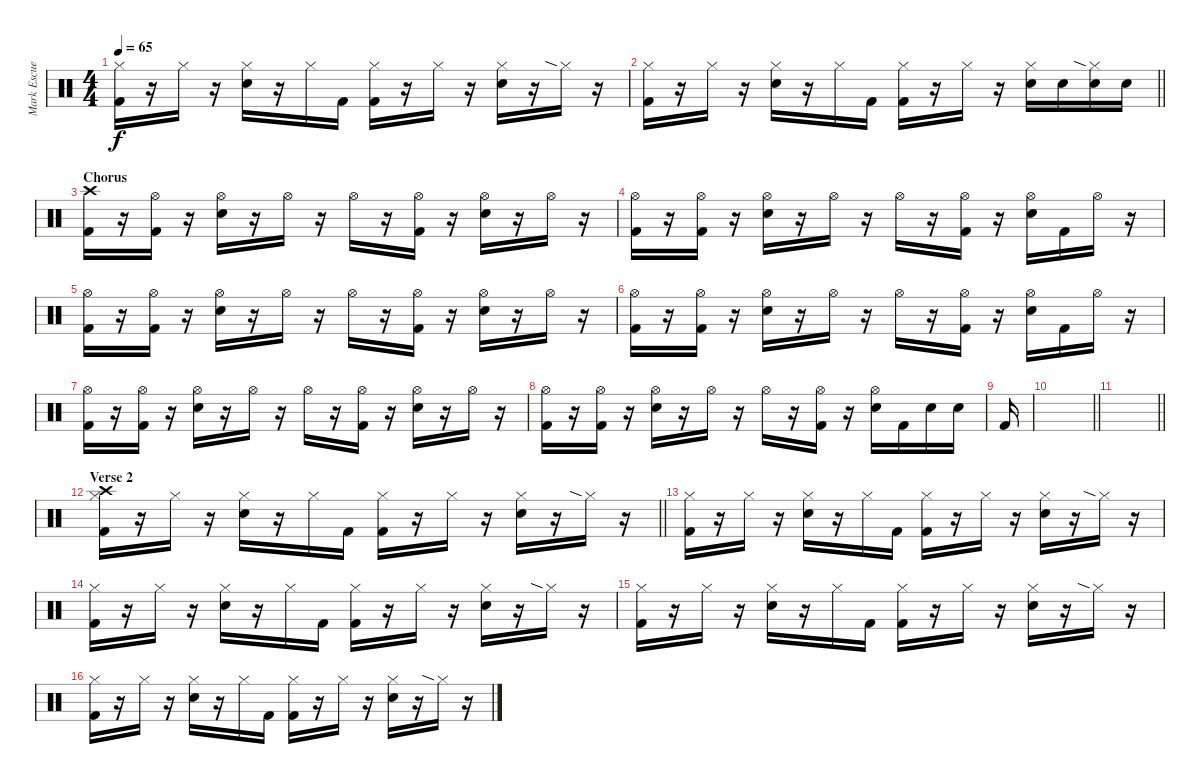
\track ("Mark Escueta" "Mark Escue") {instrument percussion}
\staff {score}
\articulation defaults
\ts (4 4)
\tempo 65
\clef neutral
\ks c
("Hi-Hat (closed)" "Kick (hit) 2").16{dy f} r.16 "Hi-Hat (closed)".16 r.16 ("Hi-Hat (closed)" "Electric Snare (hit)").16 r.16 "Hi-Hat (closed)".16 "Kick (hit) 2".16 ("Hi-Hat (closed)" "Kick (hit) 2").16 r.16 "Hi-Hat (closed)".16 r.16 ("Hi-Hat (closed)" "Electric Snare (hit)").16 r.16 "Hi-Hat (closed)"{sia}.16 r.16 |
\barLineRight lightlight
("Hi-Hat (closed)" "Kick (hit) 2").16 r.16 "Hi-Hat (closed)".16 r.16 ("Hi-Hat (closed)" "Electric Snare (hit)").16 r.16 "Hi-Hat (closed)".16 "Kick (hit) 2".16 ("Hi-Hat (closed)" "Kick (hit) 2").16 r.16 "Hi-Hat (closed)".16 r.16 ("Hi-Hat (closed)" "Electric Snare (hit)").16 "Electric Snare (hit)".16 ("Hi-Hat (closed)"{sia} "Electric Snare (hit)").16 "Electric Snare (hit)".16 |
\section ("" "Chorus")
("Crash high (hit)" "Kick (hit) 2").16 r.16 ("Hi-Hat (open)" "Kick (hit) 2").16 r.16 ("Hi-Hat (open)" "Electric Snare (hit)").16 r.16 "Hi-Hat (open)".16 r.16 "Hi-Hat (open)".16 r.16 ("Hi-Hat (open)" "Kick (hit) 2").16 r.16 ("Hi-Hat (open)" "Electric Snare (hit)").16 r.16 "Hi-Hat (open)".16 r.16 |
("Hi-Hat (open)" "Kick (hit) 2").16 r.16 ("Hi-Hat (open)" "Kick (hit) 2").16 r.16 ("Hi-Hat (open)" "Electric Snare (hit)").16 r.16 "Hi-Hat (open)".16 r.16 "Hi-Hat (open)".16 r.16 ("Hi-Hat (open)" "Kick (hit) 2").16 r.16 ("Hi-Hat (open)" "Electric Snare (hit)").16 "Kick (hit) 2".16 "Hi-Hat (open)".16 r.16 |
("Hi-Hat (open)" "Kick (hit) 2").16 r.16 ("Hi-Hat (open)" "Kick (hit) 2").16 r.16 ("Hi-Hat (open)" "Electric Snare (hit)").16 r.16 "Hi-Hat (open)".16 r.16 "Hi-Hat (open)".16 r.16 ("Hi-Hat (open)" "Kick (hit) 2").16 r.16 ("Hi-Hat (open)" "Electric Snare (hit)").16 r.16 "Hi-Hat (open)".16 r.16 |
("Hi-Hat (open)" "Kick (hit) 2").16 r.16 ("Hi-Hat (open)" "Kick (hit) 2").16 r.16 ("Hi-Hat (open)" "Electric Snare (hit)").16 r.16 "Hi-Hat (open)".16 r.16 "Hi-Hat (open)".16 r.16 ("Hi-Hat (open)" "Kick (hit) 2").16 r.16 ("Hi-Hat (open)" "Electric Snare (hit)").16 "Kick (hit) 2".16 "Hi-Hat (open)".16 r.16 |
("Hi-Hat (open)" "Kick (hit) 2").16 r.16 ("Hi-Hat (open)" "Kick (hit) 2").16 r.16 ("Hi-Hat (open)" "Electric Snare (hit)").16 r.16 "Hi-Hat (open)".16 r.16 "Hi-Hat (open)".16 r.16 ("Hi-Hat (open)" "Kick (hit) 2").16 r.16 ("Hi-Hat (open)" "Electric Snare (hit)").16 r.16 "Hi-Hat (open)".16 r.16 |
("Hi-Hat (open)" "Kick (hit) 2").16 r.16 ("Hi-Hat (open)" "Kick (hit) 2").16 r.16 ("Hi-Hat (open)" "Electric Snare (hit)").16 r.16 "Hi-Hat (open)".16 r.16 "Hi-Hat (open)".16 r.16 ("Hi-Hat (open)" "Kick (hit) 2").16 r.16 ("Hi-Hat (open)" "Electric Snare (hit)").16 "Kick (hit) 2".16 "Electric Snare (hit)".16 "Electric Snare (hit)".16 |
"Kick (hit) 2".16 |
\barLineRight lightlight
|
\barLineRight lightlight
|
\section ("" "Verse 2")
\barLineRight lightlight
("Crash high (hit)" "Hi-Hat (closed)" "Kick (hit) 2").16 r.16 "Hi-Hat (closed)".16 r.16 ("Hi-Hat (closed)" "Electric Snare (hit)").16 r.16 "Hi-Hat (closed)".16 "Kick (hit) 2".16 ("Hi-Hat (closed)" "Kick (hit) 2").16 r.16 "Hi-Hat (closed)".16 r.16 ("Hi-Hat (closed)" "Electric Snare (hit)").16 r.16 "Hi-Hat (closed)"{sia}.16 r.16 |
("Hi-Hat (closed)" "Kick (hit) 2").16 r.16 "Hi-Hat (closed)".16 r.16 ("Hi-Hat (closed)" "Electric Snare (hit)").16 r.16 "Hi-Hat (closed)".16 "Kick (hit) 2".16 ("Hi-Hat (closed)" "Kick (hit) 2").16 r.16 "Hi-Hat (closed)".16 r.16 ("Hi-Hat (closed)" "Electric Snare (hit)").16 r.16 "Hi-Hat (closed)"{sia}.16 r.16 |
("Hi-Hat (closed)" "Kick (hit) 2").16 r.16 "Hi-Hat (closed)".16 r.16 ("Hi-Hat (closed)" "Electric Snare (hit)").16 r.16 "Hi-Hat (closed)".16 "Kick (hit) 2".16 ("Hi-Hat (closed)" "Kick (hit) 2").16 r.16 "Hi-Hat (closed)".16 r.16 ("Hi-Hat (closed)" "Electric Snare (hit)").16 r.16 "Hi-Hat (closed)"{sia}.16 r.16 |
("Hi-Hat (closed)" "Kick (hit) 2").16 r.16 "Hi-Hat (closed)".16 r.16 ("Hi-Hat (closed)" "Electric Snare (hit)").16 r.16 "Hi-Hat (closed)".16 "Kick (hit) 2".16 ("Hi-Hat (closed)" "Kick (hit) 2").16 r.16 "Hi-Hat (closed)".16 r.16 ("Hi-Hat (closed)" "Electric Snare (hit)").16 r.16 "Hi-Hat (closed)"{sia}.16 r.16 |
("Hi-Hat (closed)" "Kick (hit) 2").16 r.16 "Hi-Hat (closed)".16 r.16 ("Hi-Hat (closed)" "Electric Snare (hit)").16 r.16 "Hi-Hat (closed)".16 "Kick (hit) 2".16 ("Hi-Hat (closed)" "Kick (hit) 2").16 r.16 "Hi-Hat (closed)".16 r.16 ("Hi-Hat (closed)" "Electric Snare (hit)").16 r.16 "Hi-Hat (closed)"{sia}.16 r.16
